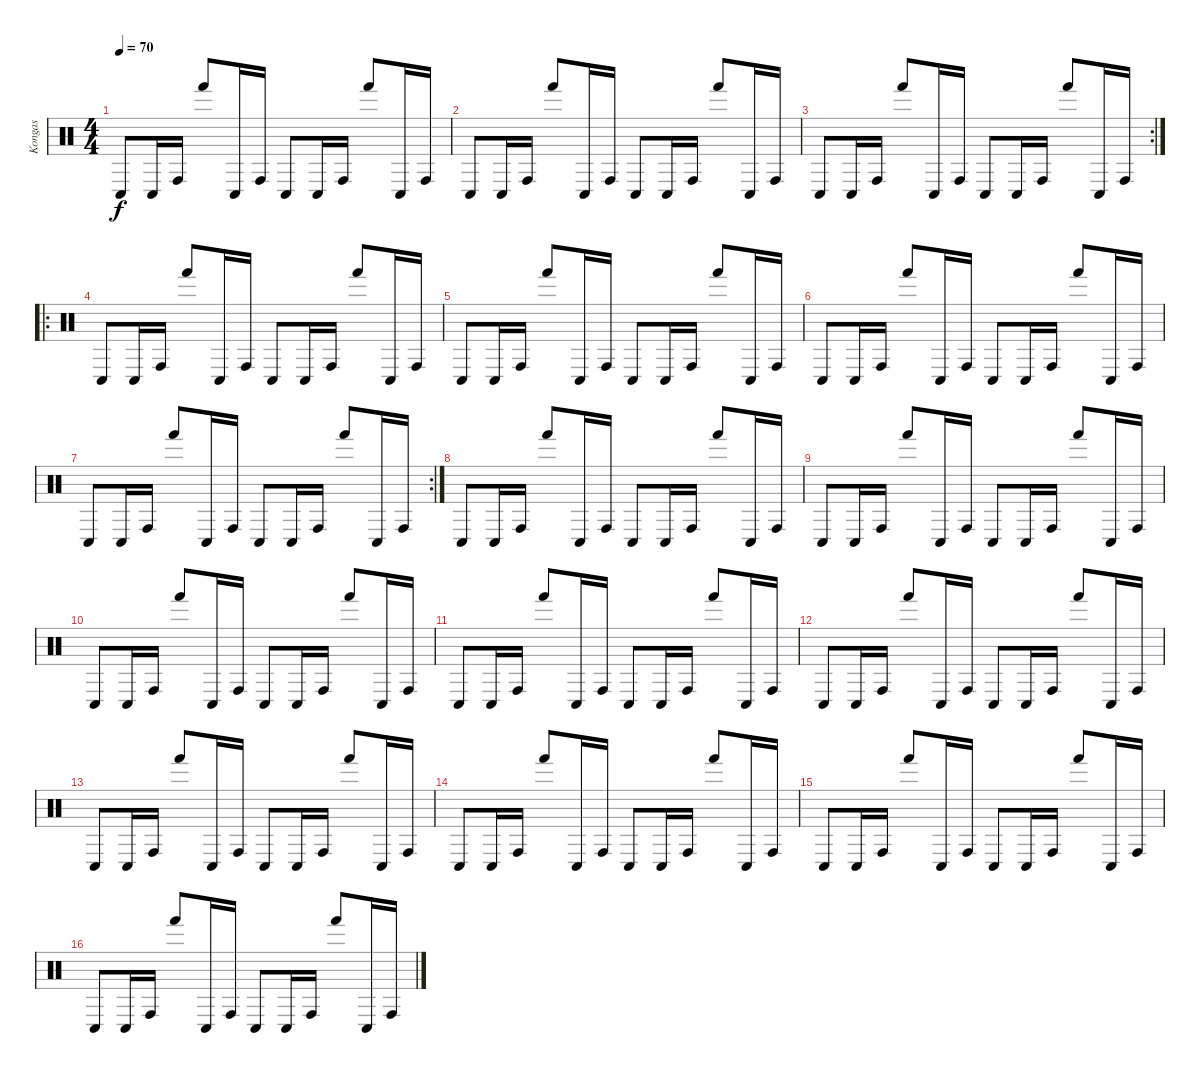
\track ("Kongas" "Kongas") {instrument percussion}
\staff {score}
\articulation defaults
\ts (4 4)
\tempo 70
\clef neutral
\ks c "Conga low (hit)".8{dy f} "Conga low (hit)".16 "Conga high (hit)".16 "Hand (hit)".8 "Conga low (hit)".16 "Conga high (hit)".16 "Conga low (hit)".8 "Conga low (hit)".16 "Conga high (hit)".16 "Hand (hit)".8 "Conga low (hit)".16 "Conga high (hit)".16
|
"Conga low (hit)".8 "Conga low (hit)".16 "Conga high (hit)".16 "Hand (hit)".8 "Conga low (hit)".16 "Conga high (hit)".16 "Conga low (hit)".8 "Conga low (hit)".16 "Conga high (hit)".16 "Hand (hit)".8 "Conga low (hit)".16 "Conga high (hit)".16 |
\rc 2 "Conga low (hit)".8 "Conga low (hit)".16 "Conga high (hit)".16 "Hand (hit)".8 "Conga low (hit)".16 "Conga high (hit)".16 "Conga low (hit)".8 "Conga low (hit)".16 "Conga high (hit)".16 "Hand (hit)".8 "Conga low (hit)".16 "Conga high (hit)".16
|
\ro "Conga low (hit)".8 "Conga low (hit)".16 "Conga high (hit)".16 "Hand (hit)".8 "Conga low (hit)".16 "Conga high (hit)".16 "Conga low (hit)".8 "Conga low (hit)".16 "Conga high (hit)".16 "Hand (hit)".8 "Conga low (hit)".16 "Conga high (hit)".16
|
"Conga low (hit)".8 "Conga low (hit)".16 "Conga high (hit)".16 "Hand (hit)".8 "Conga low (hit)".16 "Conga high (hit)".16 "Conga low (hit)".8 "Conga low (hit)".16 "Conga high (hit)".16 "Hand (hit)".8 "Conga low (hit)".16 "Conga high (hit)".16 |
"Conga low (hit)".8 "Conga low (hit)".16 "Conga high (hit)".16 "Hand (hit)".8 "Conga low (hit)".16 "Conga high (hit)".16 "Conga low (hit)".8 "Conga low (hit)".16 "Conga high (hit)".16 "Hand (hit)".8 "Conga low (hit)".16 "Conga high (hit)".16 |
\rc 2 "Conga low (hit)".8 "Conga low (hit)".16 "Conga high (hit)".16 "Hand (hit)".8 "Conga low (hit)".16 "Conga high (hit)".16 "Conga low (hit)".8 "Conga low (hit)".16 "Conga high (hit)".16 "Hand (hit)".8 "Conga low (hit)".16 "Conga high (hit)".16
|
"Conga low (hit)".8 "Conga low (hit)".16 "Conga high (hit)".16 "Hand (hit)".8 "Conga low (hit)".16 "Conga high (hit)".16 "Conga low (hit)".8 "Conga low (hit)".16 "Conga high (hit)".16 "Hand (hit)".8 "Conga low (hit)".16 "Conga high (hit)".16 |
"Conga low (hit)".8 "Conga low (hit)".16 "Conga high (hit)".16 "Hand (hit)".8 "Conga low (hit)".16 "Conga high (hit)".16 "Conga low (hit)".8 "Conga low (hit)".16 "Conga high (hit)".16 "Hand (hit)".8 "Conga low (hit)".16 "Conga high (hit)".16 |
"Conga low (hit)".8 "Conga low (hit)".16 "Conga high (hit)".16 "Hand (hit)".8 "Conga low (hit)".16 "Conga high (hit)".16 "Conga low (hit)".8 "Conga low (hit)".16 "Conga high (hit)".16 "Hand (hit)".8 "Conga low (hit)".16 "Conga high (hit)".16 |
"Conga low (hit)".8 "Conga low (hit)".16 "Conga high (hit)".16 "Hand (hit)".8 "Conga low (hit)".16 "Conga high (hit)".16 "Conga low (hit)".8 "Conga low (hit)".16 "Conga high (hit)".16 "Hand (hit)".8 "Conga low (hit)".16 "Conga high (hit)".16 |
"Conga low (hit)".8 "Conga low (hit)".16 "Conga high (hit)".16 "Hand (hit)".8 "Conga low (hit)".16 "Conga high (hit)".16 "Conga low (hit)".8 "Conga low (hit)".16 "Conga high (hit)".16 "Hand (hit)".8 "Conga low (hit)".16 "Conga high (hit)".16 |
"Conga low (hit)".8 "Conga low (hit)".16 "Conga high (hit)".16 "Hand (hit)".8 "Conga low (hit)".16 "Conga high (hit)".16 "Conga low (hit)".8 "Conga low (hit)".16 "Conga high (hit)".16 "Hand (hit)".8 "Conga low (hit)".16 "Conga high (hit)".16 |
"Conga low (hit)".8 "Conga low (hit)".16 "Conga high (hit)".16 "Hand (hit)".8 "Conga low (hit)".16 "Conga high (hit)".16 "Conga low (hit)".8 "Conga low (hit)".16 "Conga high (hit)".16 "Hand (hit)".8 "Conga low (hit)".16 "Conga high (hit)".16 |
"Conga low (hit)".8 "Conga low (hit)".16 "Conga high (hit)".16 "Hand (hit)".8 "Conga low (hit)".16 "Conga high (hit)".16 "Conga low (hit)".8 "Conga low (hit)".16 "Conga high (hit)".16 "Hand (hit)".8 "Conga low (hit)".16 "Conga high (hit)".16 |
"Conga low (hit)".8 "Conga low (hit)".16 "Conga high (hit)".16 "Hand (hit)".8 "Conga low (hit)".16 "Conga high (hit)".16 "Conga low (hit)".8 "Conga low (hit)".16 "Conga high (hit)".16 "Hand (hit)".8 "Conga low (hit)".16 "Conga high (hit)".16
